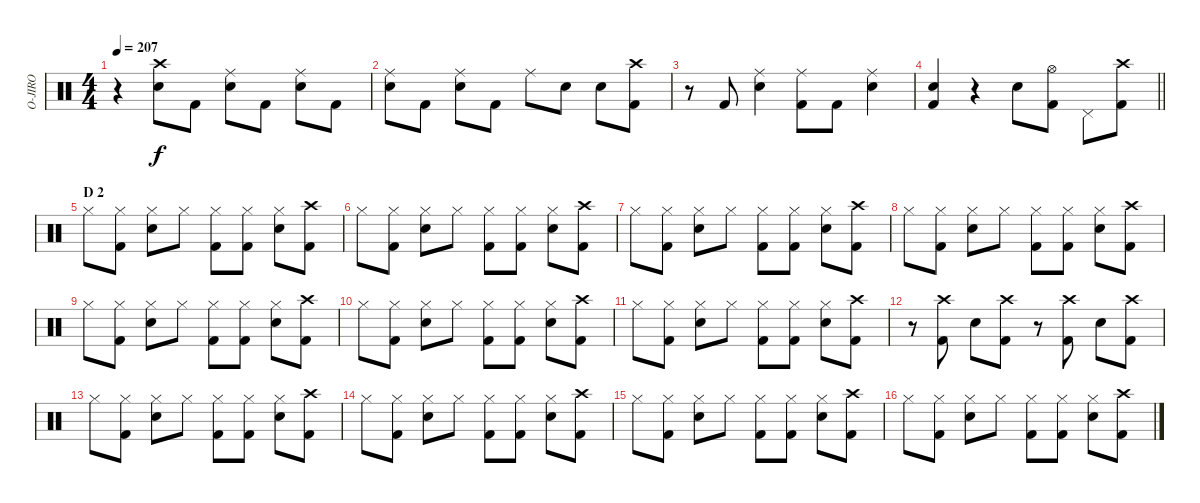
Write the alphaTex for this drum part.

\track ("O-JIRO" "O-JIRO") {instrument percussion}
\staff {score}
\articulation defaults
\ts (4 4)
\tempo 207
\clef neutral
\ks c
r.4{dy f} ("Crash high (hit)" "Snare (hit) 2").8 "Kick (hit) 2".8 ("Ride (middle)" "Snare (hit) 2").8 "Kick (hit) 2".8 ("Ride (middle)" "Snare (hit) 2").8 "Kick (hit) 2".8 |
("Ride (middle)" "Snare (hit) 2").8 "Kick (hit) 2".8 ("Ride (middle)" "Snare (hit) 2").8 "Kick (hit) 2".8 "Ride (middle)".8 "Snare (hit) 2".8 "Snare (hit) 2".8 ("Crash high (hit)" "Kick (hit) 2").8 |
r.8 "Kick (hit) 2".8 ("Ride (middle)" "Snare (hit) 2").4 ("Ride (middle)" "Kick (hit) 2").8 "Kick (hit) 2".8 ("Ride (middle)" "Snare (hit) 2").4 |
\barLineRight lightlight
("Snare (hit) 2" "Kick (hit) 2").4 r.4 "Snare (hit) 2".8 ("Hi-Hat (open)" "Kick (hit) 2").8 "Pedal Hi-Hat (hit)".8 ("Crash high (hit)" "Kick (hit) 2").8 |
\section ("" "D 2")
"Hi-Hat (closed)".8 ("Hi-Hat (closed)" "Kick (hit) 2").8 ("Hi-Hat (closed)" "Snare (hit) 2").8 "Hi-Hat (closed)".8 ("Hi-Hat (closed)" "Kick (hit) 2").8 ("Hi-Hat (closed)" "Kick (hit) 2").8 ("Hi-Hat (closed)" "Snare (hit) 2").8 ("Crash high (hit)" "Kick (hit) 2").8 |
"Hi-Hat (closed)".8 ("Hi-Hat (closed)" "Kick (hit) 2").8 ("Hi-Hat (closed)" "Snare (hit) 2").8 "Hi-Hat (closed)".8 ("Hi-Hat (closed)" "Kick (hit) 2").8 ("Hi-Hat (closed)" "Kick (hit) 2").8 ("Hi-Hat (closed)" "Snare (hit) 2").8 ("Crash high (hit)" "Kick (hit) 2").8 |
"Hi-Hat (closed)".8 ("Hi-Hat (closed)" "Kick (hit) 2").8 ("Hi-Hat (closed)" "Snare (hit) 2").8 "Hi-Hat (closed)".8 ("Hi-Hat (closed)" "Kick (hit) 2").8 ("Hi-Hat (closed)" "Kick (hit) 2").8 ("Hi-Hat (closed)" "Snare (hit) 2").8 ("Crash high (hit)" "Kick (hit) 2").8 |
"Hi-Hat (closed)".8 ("Hi-Hat (closed)" "Kick (hit) 2").8 ("Hi-Hat (closed)" "Snare (hit) 2").8 "Hi-Hat (closed)".8 ("Hi-Hat (closed)" "Kick (hit) 2").8 ("Hi-Hat (closed)" "Kick (hit) 2").8 ("Hi-Hat (closed)" "Snare (hit) 2").8 ("Crash high (hit)" "Kick (hit) 2").8 |
"Hi-Hat (closed)".8 ("Hi-Hat (closed)" "Kick (hit) 2").8 ("Hi-Hat (closed)" "Snare (hit) 2").8 "Hi-Hat (closed)".8 ("Hi-Hat (closed)" "Kick (hit) 2").8 ("Hi-Hat (closed)" "Kick (hit) 2").8 ("Hi-Hat (closed)" "Snare (hit) 2").8 ("Crash high (hit)" "Kick (hit) 2").8 |
"Hi-Hat (closed)".8 ("Hi-Hat (closed)" "Kick (hit) 2").8 ("Hi-Hat (closed)" "Snare (hit) 2").8 "Hi-Hat (closed)".8 ("Hi-Hat (closed)" "Kick (hit) 2").8 ("Hi-Hat (closed)" "Kick (hit) 2").8 ("Hi-Hat (closed)" "Snare (hit) 2").8 ("Crash high (hit)" "Kick (hit) 2").8 |
"Hi-Hat (closed)".8 ("Hi-Hat (closed)" "Kick (hit) 2").8 ("Hi-Hat (closed)" "Snare (hit) 2").8 "Hi-Hat (closed)".8 ("Hi-Hat (closed)" "Kick (hit) 2").8 ("Hi-Hat (closed)" "Kick (hit) 2").8 ("Hi-Hat (closed)" "Snare (hit) 2").8 ("Crash high (hit)" "Kick (hit) 2").8 |
r.8 ("Crash high (hit)" "Kick (hit) 2").8 "Snare (hit) 2".8 ("Crash high (hit)" "Kick (hit) 2").8 r.8 ("Crash high (hit)" "Kick (hit) 2").8 "Snare (hit) 2".8 ("Crash high (hit)" "Kick (hit) 2").8 |
"Hi-Hat (closed)".8 ("Hi-Hat (closed)" "Kick (hit) 2").8 ("Hi-Hat (closed)" "Snare (hit) 2").8 "Hi-Hat (closed)".8 ("Hi-Hat (closed)" "Kick (hit) 2").8 ("Hi-Hat (closed)" "Kick (hit) 2").8 ("Hi-Hat (closed)" "Snare (hit) 2").8 ("Crash high (hit)" "Kick (hit) 2").8 |
"Hi-Hat (closed)".8 ("Hi-Hat (closed)" "Kick (hit) 2").8 ("Hi-Hat (closed)" "Snare (hit) 2").8 "Hi-Hat (closed)".8 ("Hi-Hat (closed)" "Kick (hit) 2").8 ("Hi-Hat (closed)" "Kick (hit) 2").8 ("Hi-Hat (closed)" "Snare (hit) 2").8 ("Crash high (hit)" "Kick (hit) 2").8 |
"Hi-Hat (closed)".8 ("Hi-Hat (closed)" "Kick (hit) 2").8 ("Hi-Hat (closed)" "Snare (hit) 2").8 "Hi-Hat (closed)".8 ("Hi-Hat (closed)" "Kick (hit) 2").8 ("Hi-Hat (closed)" "Kick (hit) 2").8 ("Hi-Hat (closed)" "Snare (hit) 2").8 ("Crash high (hit)" "Kick (hit) 2").8 |
"Hi-Hat (closed)".8 ("Hi-Hat (closed)" "Kick (hit) 2").8 ("Hi-Hat (closed)" "Snare (hit) 2").8 "Hi-Hat (closed)".8 ("Hi-Hat (closed)" "Kick (hit) 2").8 ("Hi-Hat (closed)" "Kick (hit) 2").8 ("Hi-Hat (closed)" "Snare (hit) 2").8 ("Crash high (hit)" "Kick (hit) 2").8
